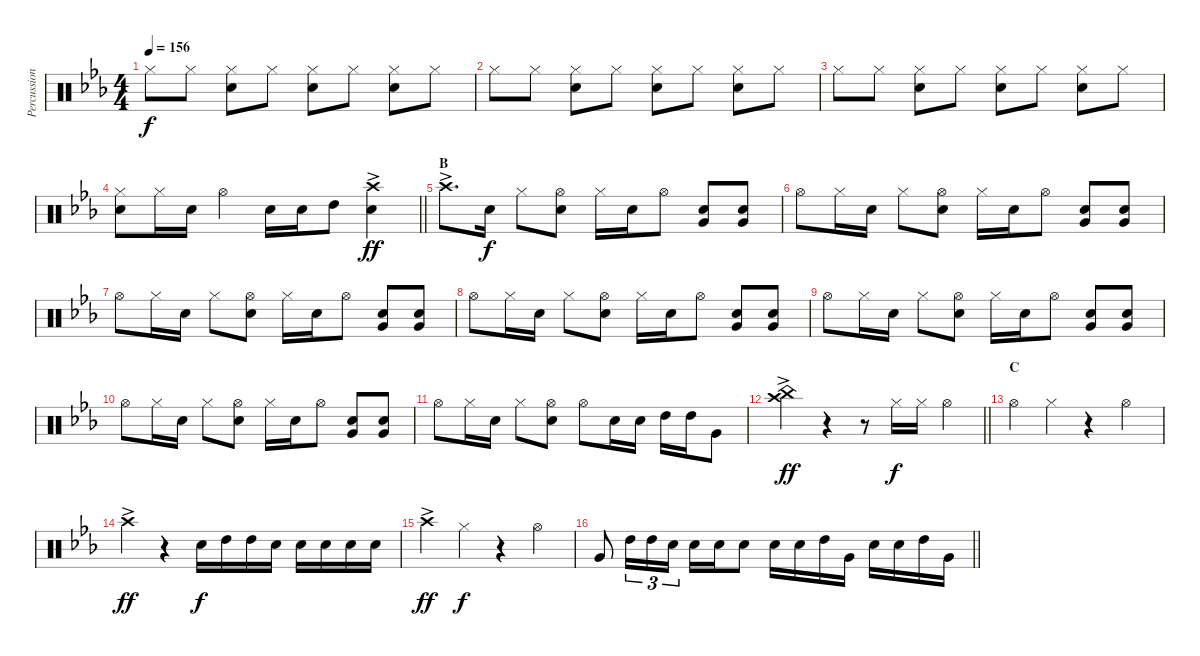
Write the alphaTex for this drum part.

\track ("Percussion hand" "Percussion") {instrument percussion}
\staff {score}
\articulation defaults
\ts (4 4)
\tempo 156
\clef neutral
\ks eb "Hi-Hat (closed)".8{dy f} "Hi-Hat (closed)".8
("Hi-Hat (closed)" "Snare (hit) 2").8 "Hi-Hat (closed)".8 ("Hi-Hat (closed)" "Snare (hit) 2").8 "Hi-Hat (closed)".8 ("Hi-Hat (closed)" "Snare (hit) 2").8 "Hi-Hat (closed)".8 |
"Hi-Hat (closed)".8 "Hi-Hat (closed)".8 ("Hi-Hat (closed)" "Snare (hit) 2").8 "Hi-Hat (closed)".8 ("Hi-Hat (closed)" "Snare (hit) 2").8 "Hi-Hat (closed)".8 ("Hi-Hat (closed)" "Snare (hit) 2").8 "Hi-Hat (closed)".8 |
"Hi-Hat (closed)".8 "Hi-Hat (closed)".8 ("Hi-Hat (closed)" "Snare (hit) 2").8 "Hi-Hat (closed)".8 ("Hi-Hat (closed)" "Snare (hit) 2").8 "Hi-Hat (closed)".8 ("Hi-Hat (closed)" "Snare (hit) 2").8 "Hi-Hat (closed)".8 |
\barLineRight lightlight
("Hi-Hat (closed)" "Snare (hit) 2").8 "Hi-Hat (closed)".16 "Snare (hit) 2".16 "Hi-Hat (open)".4 "Snare (hit) 2".16 "Snare (hit) 2".16 "High Tom (hit)".8 ("Crash high (hit)" "Snare (hit) 2"{ac}).4{dy ff} |
\section ("" "B")
"Crash high (hit)"{ac}.8{d} "Snare (hit) 2".16{dy f} "Hi-Hat (closed)".8 ("Hi-Hat (open)" "Snare (hit) 2").8 "Hi-Hat (closed)".16 "Snare (hit) 2".16 "Hi-Hat (open)".8 ("Very Low Tom (hit)" "Snare (hit) 2").8 ("Snare (hit) 2" "Very Low Tom (hit)").8 |
"Hi-Hat (open)".8 "Hi-Hat (closed)".16 "Snare (hit) 2".16 "Hi-Hat (closed)".8 ("Hi-Hat (open)" "Snare (hit) 2").8 "Hi-Hat (closed)".16 "Snare (hit) 2".16 "Hi-Hat (open)".8 ("Snare (hit) 2" "Very Low Tom (hit)").8 ("Snare (hit) 2" "Very Low Tom (hit)").8 |
"Hi-Hat (open)".8 "Hi-Hat (closed)".16 "Snare (hit) 2".16 "Hi-Hat (closed)".8 ("Hi-Hat (open)" "Snare (hit) 2").8 "Hi-Hat (closed)".16 "Snare (hit) 2".16 "Hi-Hat (open)".8 ("Snare (hit) 2" "Very Low Tom (hit)").8 ("Snare (hit) 2" "Very Low Tom (hit)").8 |
"Hi-Hat (open)".8 "Hi-Hat (closed)".16 "Snare (hit) 2".16 "Hi-Hat (closed)".8 ("Hi-Hat (open)" "Snare (hit) 2").8 "Hi-Hat (closed)".16 "Snare (hit) 2".16 "Hi-Hat (open)".8 ("Snare (hit) 2" "Very Low Tom (hit)").8 ("Snare (hit) 2" "Very Low Tom (hit)").8 |
"Hi-Hat (open)".8 "Hi-Hat (closed)".16 "Snare (hit) 2".16 "Hi-Hat (closed)".8 ("Hi-Hat (open)" "Snare (hit) 2").8 "Hi-Hat (closed)".16 "Snare (hit) 2".16 "Hi-Hat (open)".8 ("Snare (hit) 2" "Very Low Tom (hit)").8 ("Snare (hit) 2" "Very Low Tom (hit)").8 |
"Hi-Hat (open)".8 "Hi-Hat (closed)".16 "Snare (hit) 2".16 "Hi-Hat (closed)".8 ("Hi-Hat (open)" "Snare (hit) 2").8 "Hi-Hat (closed)".16 "Snare (hit) 2".16 "Hi-Hat (open)".8 ("Snare (hit) 2" "Very Low Tom (hit)").8 ("Snare (hit) 2" "Very Low Tom (hit)").8 |
"Hi-Hat (open)".8 "Hi-Hat (closed)".16 "Snare (hit) 2".16 "Hi-Hat (closed)".8 ("Hi-Hat (open)" "Snare (hit) 2").8 "Hi-Hat (open)".8 "Snare (hit) 2".16 "Snare (hit) 2".16 "High Tom (hit)".16 "High Tom (hit)".16 "Very Low Tom (hit)".8 |
\barLineRight lightlight
("China (hit)"{ac} "Crash high (hit)").4{dy ff} r.4 r.8 "Hi-Hat (closed)".16{dy f} "Hi-Hat (closed)".16 "Hi-Hat (open)".4 |
\section ("" "C")
"Hi-Hat (open)".4 "Hi-Hat (closed)".4 r.4 "Hi-Hat (open)".4 |
"Crash high (hit)"{ac}.4{dy ff} r.4 "Snare (hit) 2".16{dy f} "High Tom (hit)".16 "High Tom (hit)".16 "Snare (hit) 2".16 "Snare (hit) 2".16 "Snare (hit) 2".16 "Snare (hit) 2".16 "Snare (hit) 2".16 |
"Crash high (hit)"{ac}.4{dy ff} "Hi-Hat (closed)".4{dy f} r.4 "Hi-Hat (open)".4 |
\barLineRight lightlight "Very Low Tom (hit)".8 "High Tom (hit)".16{tu (3 2)} "High Tom (hit)".16{tu (3 2)} "Snare (hit) 2".16{tu (3 2)} "Snare (hit) 2".16 "Snare (hit) 2".16 "Snare (hit) 2".8 "Snare (hit) 2".16 "Snare (hit) 2".16 "High Tom (hit)".16 "Very Low Tom (hit)".16 "Snare (hit) 2".16 "Snare (hit) 2".16 "High Tom (hit)".16 "Very Low Tom (hit)".16
